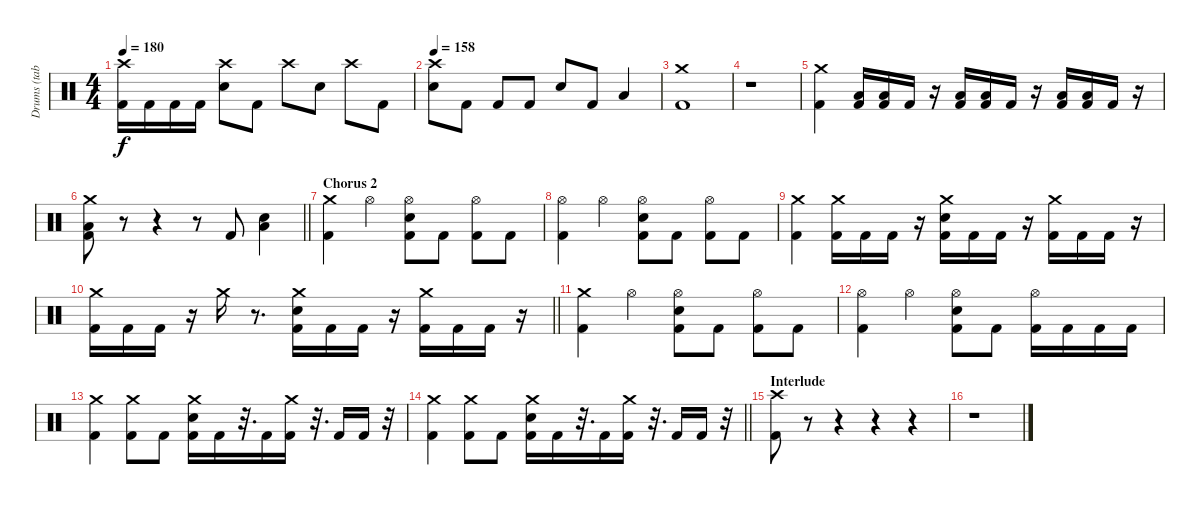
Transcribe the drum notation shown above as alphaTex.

\track ("Drums (tabbed by bassman213293)" "Drums (tab") {instrument percussion}
\staff {score}
\articulation defaults
\ts (4 4)
\tempo 180
\clef neutral
\ks c
("Crash high (hit)" "Kick (hit) 2").16{dy f} "Kick (hit) 2".16 "Kick (hit) 2".16 "Kick (hit) 2".16 ("Crash high (hit)" "Electric Snare (hit)").8 "Kick (hit) 2".8 "Crash high (hit)".8 "Electric Snare (hit)".8 "Crash high (hit)".8 "Kick (hit) 2".8 |
\tempo 158
("Crash high (hit)" "Electric Snare (hit)").8 "Kick (hit) 2".8 "Kick (hit) 2".8 "Kick (hit) 2".8 "Electric Snare (hit)".8 "Kick (hit) 2".8 "Low Tom (hit)".4 |
("Crash medium (hit)" "Kick (hit) 2").1 |
r.1 |
("Crash medium (hit)" "Kick (hit) 2").4 ("Low Tom (hit)" "Kick (hit) 2").16 ("Low Tom (hit)" "Kick (hit) 2").16 "Kick (hit) 2".16 r.16 ("Low Tom (hit)" "Kick (hit) 2").16 ("Low Tom (hit)" "Kick (hit) 2").16 "Kick (hit) 2".16 r.16 ("Low Tom (hit)" "Kick (hit) 2").16 ("Low Tom (hit)" "Kick (hit) 2").16 "Kick (hit) 2".16 r.16 |
\barLineRight lightlight
("Crash medium (hit)" "Low Tom (hit)" "Kick (hit) 2").8 r.8 r.4 r.8 "Kick (hit) 2".8 ("Electric Snare (hit)" "Low Tom (hit)").4 |
\section ("" "Chorus 2")
("Crash medium (hit)" "Kick (hit) 2").4 "Hi-Hat (open)".4 ("Hi-Hat (open)" "Electric Snare (hit)" "Kick (hit) 2").8 "Kick (hit) 2".8 ("Hi-Hat (open)" "Kick (hit) 2").8 "Kick (hit) 2".8 |
("Hi-Hat (open)" "Kick (hit) 2").4 "Hi-Hat (open)".4 ("Hi-Hat (open)" "Electric Snare (hit)" "Kick (hit) 2").8 "Kick (hit) 2".8 ("Hi-Hat (open)" "Kick (hit) 2").8 "Kick (hit) 2".8 |
("Crash medium (hit)" "Kick (hit) 2").4 ("Crash medium (hit)" "Kick (hit) 2").16 "Kick (hit) 2".16 "Kick (hit) 2".16 r.16 ("Crash medium (hit)" "Electric Snare (hit)" "Kick (hit) 2").16 "Kick (hit) 2".16 "Kick (hit) 2".16 r.16 ("Crash medium (hit)" "Kick (hit) 2").16 "Kick (hit) 2".16 "Kick (hit) 2".16 r.16 |
\barLineRight lightlight
("Crash medium (hit)" "Kick (hit) 2").16 "Kick (hit) 2".16 "Kick (hit) 2".16 r.16 "Crash medium (hit)".16 r.8{d} ("Crash medium (hit)" "Electric Snare (hit)" "Kick (hit) 2").16 "Kick (hit) 2".16 "Kick (hit) 2".16 r.16 ("Crash medium (hit)" "Kick (hit) 2").16 "Kick (hit) 2".16 "Kick (hit) 2".16 r.16 |
("Crash medium (hit)" "Kick (hit) 2").4 "Hi-Hat (open)".4 ("Hi-Hat (open)" "Electric Snare (hit)" "Kick (hit) 2").8 "Kick (hit) 2".8 ("Hi-Hat (open)" "Kick (hit) 2").8 "Kick (hit) 2".8 |
("Hi-Hat (open)" "Kick (hit) 2").4 "Hi-Hat (open)".4 ("Hi-Hat (open)" "Electric Snare (hit)" "Kick (hit) 2").8 "Kick (hit) 2".8 ("Hi-Hat (open)" "Kick (hit) 2").16 "Kick (hit) 2".16 "Kick (hit) 2".16 "Kick (hit) 2".16 |
("Crash medium (hit)" "Kick (hit) 2").4 ("Crash medium (hit)" "Kick (hit) 2").8 "Kick (hit) 2".8 ("Crash medium (hit)" "Electric Snare (hit)" "Kick (hit) 2").16 "Kick (hit) 2".16 r.32{d} "Kick (hit) 2".16 ("Crash medium (hit)" "Kick (hit) 2").16 r.32{d} "Kick (hit) 2".16 "Kick (hit) 2".16 r.32 |
\barLineRight lightlight
("Crash medium (hit)" "Kick (hit) 2").4 ("Crash medium (hit)" "Kick (hit) 2").8 "Kick (hit) 2".8 ("Crash medium (hit)" "Electric Snare (hit)" "Kick (hit) 2").16 "Kick (hit) 2".16 r.32{d} "Kick (hit) 2".16 ("Crash medium (hit)" "Kick (hit) 2").16 r.32{d} "Kick (hit) 2".16 "Kick (hit) 2".16 r.32 |
\section ("" "Interlude")
("Crash high (hit)" "Kick (hit) 2").8 r.8 r.4 r.4 r.4 |
r.1
